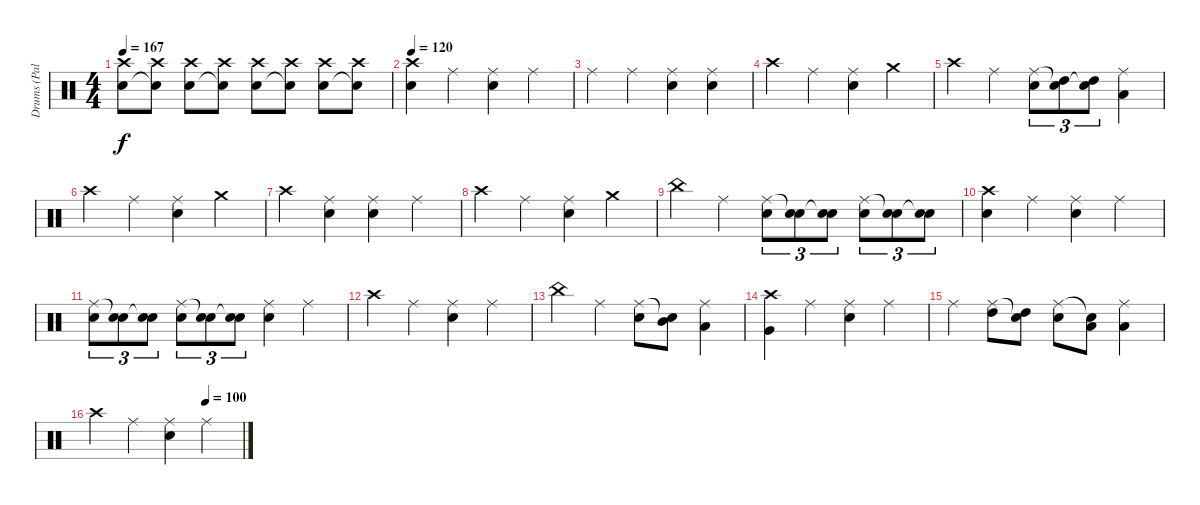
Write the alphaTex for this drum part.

\track ("Drums (Palmer)" "Drums (Pal") {instrument percussion}
\staff {score}
\articulation defaults
\ts (4 4)
\tempo 167
\clef neutral
\ks c
("Crash high (hit)" "Snare (hit) 2").8{dy f} ("Crash high (hit)" "Snare (hit)"{t}).8 ("Crash high (hit)" "Snare (hit) 2").8 ("Crash high (hit)" "Snare (hit)"{t}).8 ("Crash high (hit)" "Snare (hit) 2").8 ("Crash high (hit)" "Snare (hit)"{t}).8 ("Crash high (hit)" "Snare (hit) 2").8 ("Crash high (hit)" "Snare (hit)"{t}).8 |
\tempo 120
("Crash high (hit)" "Snare (hit) 2").4 "Ride (middle)".4 ("Ride (middle)" "Snare (hit) 2").4 "Ride (middle)".4 |
"Ride (middle)".4 "Ride (middle)".4 ("Ride (middle)" "Snare (hit) 2").4 ("Ride (middle)" "Snare (hit) 2").4 |
"Crash high (hit)".4 "Ride (middle)".4 ("Ride (middle)" "Snare (hit) 2").4 "Crash medium (hit)".4 |
"Crash high (hit)".4 "Ride (middle)".4 ("Ride (middle)" "Snare (hit) 2").8{tu (3 2)} ("Snare (hit)"{t} "High Tom (hit)").8{tu (3 2)} ("Snare (hit)"{t} "High Tom (hit)").8{tu (3 2)} ("Ride (middle)" "Low Tom (hit)").4 |
"Crash high (hit)".4 "Ride (middle)".4 ("Ride (middle)" "Snare (hit) 2").4 "Crash medium (hit)".4 |
"Crash high (hit)".4 ("Ride (middle)" "Snare (hit) 2").4 ("Ride (middle)" "Snare (hit) 2").4 "Ride (middle)".4 |
"Crash high (hit)".4 "Ride (middle)".4 ("Ride (middle)" "Snare (hit) 2").4 "Crash medium (hit)".4 |
"China (hit)".4 "Ride (middle)".4 ("Ride (middle)" "Snare (hit) 2").8{tu (3 2)} ("Snare (hit)"{t} "Snare (hit) 2").8{tu (3 2)} ("Snare (hit)"{t} "Snare (hit) 2").8{tu (3 2)} ("Ride (middle)" "Snare (hit) 2").8{tu (3 2)} ("Snare (hit)"{t} "Snare (hit) 2").8{tu (3 2)} ("Snare (hit)"{t} "Snare (hit) 2").8{tu (3 2)} |
("Crash high (hit)" "Snare (hit) 2").4 "Ride (middle)".4 ("Ride (middle)" "Snare (hit) 2").4 "Ride (middle)".4 |
("Ride (middle)" "Snare (hit) 2").8{tu (3 2)} ("Snare (hit)"{t} "Snare (hit) 2").8{tu (3 2)} ("Snare (hit)"{t} "Snare (hit) 2").8{tu (3 2)} ("Ride (middle)" "Snare (hit) 2").8{tu (3 2)} ("Snare (hit)"{t} "Snare (hit) 2").8{tu (3 2)} ("Snare (hit)"{t} "Snare (hit) 2").8{tu (3 2)} ("Ride (middle)" "Snare (hit) 2").4 "Ride (middle)".4 |
"Crash high (hit)".4 "Ride (middle)".4 ("Ride (middle)" "Snare (hit) 2").4 "Ride (middle)".4 |
"China (hit)".4 "Ride (middle)".4 ("Ride (middle)" "Snare (hit) 2").8 ("Snare (hit)"{t} "Mid Tom (hit)").8 ("Ride (middle)" "Low Tom (hit)").4 |
("Crash high (hit)" "Very Low Tom (hit)").4 "Ride (middle)".4 ("Ride (middle)" "Snare (hit) 2").4 "Ride (middle)".4 |
"Ride (middle)".4 ("Ride (middle)" "High Tom (hit)").8 ("Snare (hit)"{t} "High Tom (hit)").8 ("Ride (middle)" "Snare (hit) 2").8 ("Snare (hit)"{t} "Low Tom (hit)").8 ("Ride (middle)" "Low Tom (hit)").4 |
\tempo (100 0.75)
"Crash high (hit)".4 "Ride (middle)".4 ("Ride (middle)" "Snare (hit) 2").4 "Ride (middle)".4
